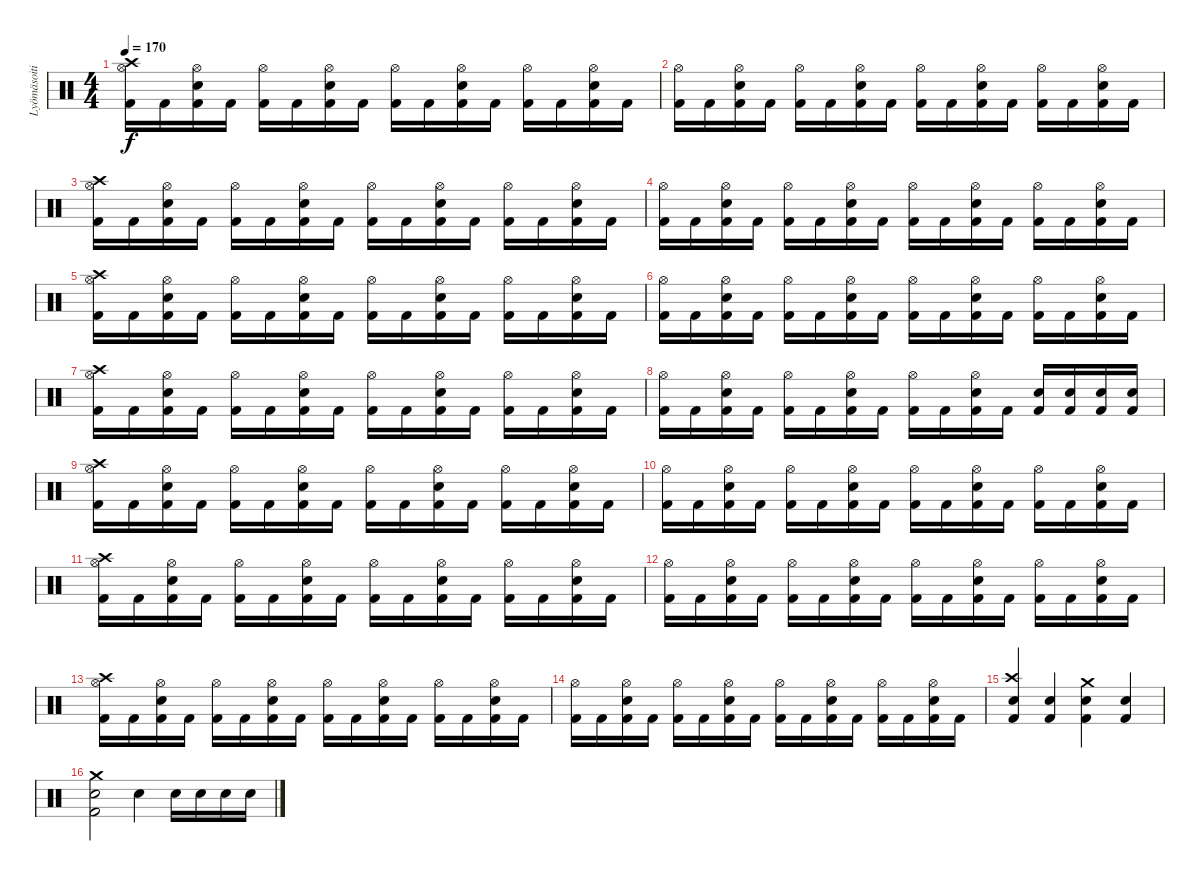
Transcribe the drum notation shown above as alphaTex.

\track ("Lyömäsoitin" "Lyömäsoiti") {instrument percussion}
\staff {score}
\articulation defaults
\ts (4 4)
\tempo 170
\clef neutral
\ks c
("Kick (hit) 2" "Crash high (hit)" "Hi-Hat (open)").16{dy f} "Kick (hit) 2".16 ("Kick (hit) 2" "Snare (hit) 2" "Hi-Hat (open)").16 "Kick (hit) 2".16 ("Kick (hit) 2" "Hi-Hat (open)").16 "Kick (hit) 2".16 ("Kick (hit) 2" "Snare (hit) 2" "Hi-Hat (open)").16 "Kick (hit) 2".16 ("Kick (hit) 2" "Hi-Hat (open)").16 "Kick (hit) 2".16 ("Kick (hit) 2" "Snare (hit) 2" "Hi-Hat (open)").16 "Kick (hit) 2".16 ("Kick (hit) 2" "Hi-Hat (open)").16 "Kick (hit) 2".16 ("Kick (hit) 2" "Snare (hit) 2" "Hi-Hat (open)").16 "Kick (hit) 2".16 |
("Kick (hit) 2" "Hi-Hat (open)").16 "Kick (hit) 2".16 ("Kick (hit) 2" "Snare (hit) 2" "Hi-Hat (open)").16 "Kick (hit) 2".16 ("Kick (hit) 2" "Hi-Hat (open)").16 "Kick (hit) 2".16 ("Kick (hit) 2" "Snare (hit) 2" "Hi-Hat (open)").16 "Kick (hit) 2".16 ("Kick (hit) 2" "Hi-Hat (open)").16 "Kick (hit) 2".16 ("Kick (hit) 2" "Snare (hit) 2" "Hi-Hat (open)").16 "Kick (hit) 2".16 ("Kick (hit) 2" "Hi-Hat (open)").16 "Kick (hit) 2".16 ("Kick (hit) 2" "Snare (hit) 2" "Hi-Hat (open)").16 "Kick (hit) 2".16 |
("Kick (hit) 2" "Crash high (hit)" "Hi-Hat (open)").16 "Kick (hit) 2".16 ("Kick (hit) 2" "Snare (hit) 2" "Hi-Hat (open)").16 "Kick (hit) 2".16 ("Kick (hit) 2" "Hi-Hat (open)").16 "Kick (hit) 2".16 ("Kick (hit) 2" "Snare (hit) 2" "Hi-Hat (open)").16 "Kick (hit) 2".16 ("Kick (hit) 2" "Hi-Hat (open)").16 "Kick (hit) 2".16 ("Kick (hit) 2" "Snare (hit) 2" "Hi-Hat (open)").16 "Kick (hit) 2".16 ("Kick (hit) 2" "Hi-Hat (open)").16 "Kick (hit) 2".16 ("Kick (hit) 2" "Snare (hit) 2" "Hi-Hat (open)").16 "Kick (hit) 2".16 |
("Kick (hit) 2" "Hi-Hat (open)").16 "Kick (hit) 2".16 ("Kick (hit) 2" "Snare (hit) 2" "Hi-Hat (open)").16 "Kick (hit) 2".16 ("Kick (hit) 2" "Hi-Hat (open)").16 "Kick (hit) 2".16 ("Kick (hit) 2" "Snare (hit) 2" "Hi-Hat (open)").16 "Kick (hit) 2".16 ("Kick (hit) 2" "Hi-Hat (open)").16 "Kick (hit) 2".16 ("Kick (hit) 2" "Snare (hit) 2" "Hi-Hat (open)").16 "Kick (hit) 2".16 ("Kick (hit) 2" "Hi-Hat (open)").16 "Kick (hit) 2".16 ("Kick (hit) 2" "Snare (hit) 2" "Hi-Hat (open)").16 "Kick (hit) 2".16 |
("Kick (hit) 2" "Crash high (hit)" "Hi-Hat (open)").16 "Kick (hit) 2".16 ("Kick (hit) 2" "Snare (hit) 2" "Hi-Hat (open)").16 "Kick (hit) 2".16 ("Kick (hit) 2" "Hi-Hat (open)").16 "Kick (hit) 2".16 ("Kick (hit) 2" "Snare (hit) 2" "Hi-Hat (open)").16 "Kick (hit) 2".16 ("Kick (hit) 2" "Hi-Hat (open)").16 "Kick (hit) 2".16 ("Kick (hit) 2" "Snare (hit) 2" "Hi-Hat (open)").16 "Kick (hit) 2".16 ("Kick (hit) 2" "Hi-Hat (open)").16 "Kick (hit) 2".16 ("Kick (hit) 2" "Snare (hit) 2" "Hi-Hat (open)").16 "Kick (hit) 2".16 |
("Kick (hit) 2" "Hi-Hat (open)").16 "Kick (hit) 2".16 ("Kick (hit) 2" "Snare (hit) 2" "Hi-Hat (open)").16 "Kick (hit) 2".16 ("Kick (hit) 2" "Hi-Hat (open)").16 "Kick (hit) 2".16 ("Kick (hit) 2" "Snare (hit) 2" "Hi-Hat (open)").16 "Kick (hit) 2".16 ("Kick (hit) 2" "Hi-Hat (open)").16 "Kick (hit) 2".16 ("Kick (hit) 2" "Snare (hit) 2" "Hi-Hat (open)").16 "Kick (hit) 2".16 ("Kick (hit) 2" "Hi-Hat (open)").16 "Kick (hit) 2".16 ("Kick (hit) 2" "Snare (hit) 2" "Hi-Hat (open)").16 "Kick (hit) 2".16 |
("Kick (hit) 2" "Crash high (hit)" "Hi-Hat (open)").16 "Kick (hit) 2".16 ("Kick (hit) 2" "Snare (hit) 2" "Hi-Hat (open)").16 "Kick (hit) 2".16 ("Kick (hit) 2" "Hi-Hat (open)").16 "Kick (hit) 2".16 ("Kick (hit) 2" "Snare (hit) 2" "Hi-Hat (open)").16 "Kick (hit) 2".16 ("Kick (hit) 2" "Hi-Hat (open)").16 "Kick (hit) 2".16 ("Kick (hit) 2" "Snare (hit) 2" "Hi-Hat (open)").16 "Kick (hit) 2".16 ("Kick (hit) 2" "Hi-Hat (open)").16 "Kick (hit) 2".16 ("Kick (hit) 2" "Snare (hit) 2" "Hi-Hat (open)").16 "Kick (hit) 2".16 |
("Kick (hit) 2" "Hi-Hat (open)").16 "Kick (hit) 2".16 ("Kick (hit) 2" "Snare (hit) 2" "Hi-Hat (open)").16 "Kick (hit) 2".16 ("Kick (hit) 2" "Hi-Hat (open)").16 "Kick (hit) 2".16 ("Kick (hit) 2" "Snare (hit) 2" "Hi-Hat (open)").16 "Kick (hit) 2".16 ("Kick (hit) 2" "Hi-Hat (open)").16 "Kick (hit) 2".16 ("Kick (hit) 2" "Snare (hit) 2" "Hi-Hat (open)").16 "Kick (hit) 2".16 ("Kick (hit) 2" "Snare (hit) 2").16 ("Kick (hit) 2" "Snare (hit) 2").16 ("Kick (hit) 2" "Snare (hit) 2").16 ("Kick (hit) 2" "Snare (hit) 2").16 |
("Kick (hit) 2" "Crash high (hit)" "Hi-Hat (open)").16 "Kick (hit) 2".16 ("Kick (hit) 2" "Snare (hit) 2" "Hi-Hat (open)").16 "Kick (hit) 2".16 ("Kick (hit) 2" "Hi-Hat (open)").16 "Kick (hit) 2".16 ("Kick (hit) 2" "Snare (hit) 2" "Hi-Hat (open)").16 "Kick (hit) 2".16 ("Kick (hit) 2" "Hi-Hat (open)").16 "Kick (hit) 2".16 ("Kick (hit) 2" "Snare (hit) 2" "Hi-Hat (open)").16 "Kick (hit) 2".16 ("Kick (hit) 2" "Hi-Hat (open)").16 "Kick (hit) 2".16 ("Kick (hit) 2" "Snare (hit) 2" "Hi-Hat (open)").16 "Kick (hit) 2".16 |
("Kick (hit) 2" "Hi-Hat (open)").16 "Kick (hit) 2".16 ("Kick (hit) 2" "Snare (hit) 2" "Hi-Hat (open)").16 "Kick (hit) 2".16 ("Kick (hit) 2" "Hi-Hat (open)").16 "Kick (hit) 2".16 ("Kick (hit) 2" "Snare (hit) 2" "Hi-Hat (open)").16 "Kick (hit) 2".16 ("Kick (hit) 2" "Hi-Hat (open)").16 "Kick (hit) 2".16 ("Kick (hit) 2" "Snare (hit) 2" "Hi-Hat (open)").16 "Kick (hit) 2".16 ("Kick (hit) 2" "Hi-Hat (open)").16 "Kick (hit) 2".16 ("Kick (hit) 2" "Snare (hit) 2" "Hi-Hat (open)").16 "Kick (hit) 2".16 |
("Kick (hit) 2" "Crash high (hit)" "Hi-Hat (open)").16 "Kick (hit) 2".16 ("Kick (hit) 2" "Snare (hit) 2" "Hi-Hat (open)").16 "Kick (hit) 2".16 ("Kick (hit) 2" "Hi-Hat (open)").16 "Kick (hit) 2".16 ("Kick (hit) 2" "Snare (hit) 2" "Hi-Hat (open)").16 "Kick (hit) 2".16 ("Kick (hit) 2" "Hi-Hat (open)").16 "Kick (hit) 2".16 ("Kick (hit) 2" "Snare (hit) 2" "Hi-Hat (open)").16 "Kick (hit) 2".16 ("Kick (hit) 2" "Hi-Hat (open)").16 "Kick (hit) 2".16 ("Kick (hit) 2" "Snare (hit) 2" "Hi-Hat (open)").16 "Kick (hit) 2".16 |
("Kick (hit) 2" "Hi-Hat (open)").16 "Kick (hit) 2".16 ("Kick (hit) 2" "Snare (hit) 2" "Hi-Hat (open)").16 "Kick (hit) 2".16 ("Kick (hit) 2" "Hi-Hat (open)").16 "Kick (hit) 2".16 ("Kick (hit) 2" "Snare (hit) 2" "Hi-Hat (open)").16 "Kick (hit) 2".16 ("Kick (hit) 2" "Hi-Hat (open)").16 "Kick (hit) 2".16 ("Kick (hit) 2" "Snare (hit) 2" "Hi-Hat (open)").16 "Kick (hit) 2".16 ("Kick (hit) 2" "Hi-Hat (open)").16 "Kick (hit) 2".16 ("Kick (hit) 2" "Snare (hit) 2" "Hi-Hat (open)").16 "Kick (hit) 2".16 |
("Kick (hit) 2" "Crash high (hit)" "Hi-Hat (open)").16 "Kick (hit) 2".16 ("Kick (hit) 2" "Snare (hit) 2" "Hi-Hat (open)").16 "Kick (hit) 2".16 ("Kick (hit) 2" "Hi-Hat (open)").16 "Kick (hit) 2".16 ("Kick (hit) 2" "Snare (hit) 2" "Hi-Hat (open)").16 "Kick (hit) 2".16 ("Kick (hit) 2" "Hi-Hat (open)").16 "Kick (hit) 2".16 ("Kick (hit) 2" "Snare (hit) 2" "Hi-Hat (open)").16 "Kick (hit) 2".16 ("Kick (hit) 2" "Hi-Hat (open)").16 "Kick (hit) 2".16 ("Kick (hit) 2" "Snare (hit) 2" "Hi-Hat (open)").16 "Kick (hit) 2".16 |
("Kick (hit) 2" "Hi-Hat (open)").16 "Kick (hit) 2".16 ("Kick (hit) 2" "Snare (hit) 2" "Hi-Hat (open)").16 "Kick (hit) 2".16 ("Kick (hit) 2" "Hi-Hat (open)").16 "Kick (hit) 2".16 ("Kick (hit) 2" "Snare (hit) 2" "Hi-Hat (open)").16 "Kick (hit) 2".16 ("Kick (hit) 2" "Hi-Hat (open)").16 "Kick (hit) 2".16 ("Kick (hit) 2" "Snare (hit) 2" "Hi-Hat (open)").16 "Kick (hit) 2".16 ("Kick (hit) 2" "Hi-Hat (open)").16 "Kick (hit) 2".16 ("Kick (hit) 2" "Snare (hit) 2" "Hi-Hat (open)").16 "Kick (hit) 2".16 |
("Kick (hit) 2" "Snare (hit) 2" "Crash high (hit)").4 ("Kick (hit) 2" "Snare (hit) 2").4 ("Kick (hit) 2" "Snare (hit) 2" "Crash medium (hit)").4 ("Kick (hit) 2" "Snare (hit) 2").4 |
("Kick (hit) 2" "Snare (hit) 2" "Crash medium (hit)").2 "Electric Snare (hit)".4 "Snare (hit) 2".16 "Snare (hit) 2".16 "Snare (hit) 2".16 "Snare (hit) 2".16
